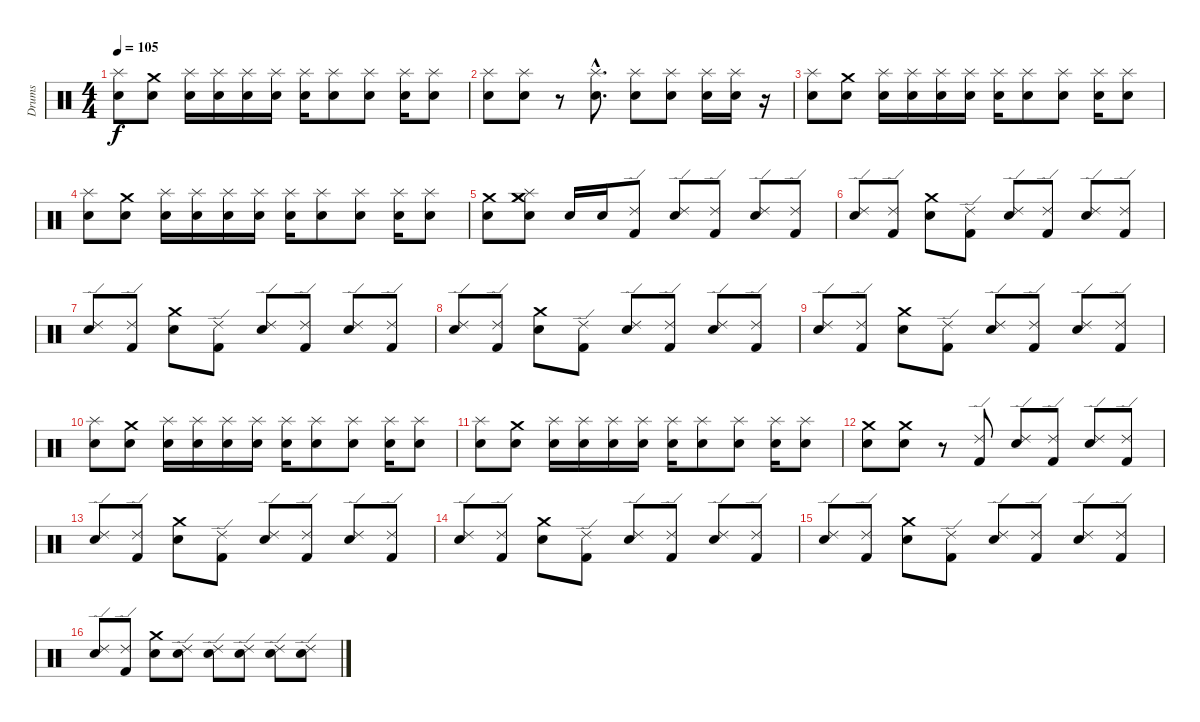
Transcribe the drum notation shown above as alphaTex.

\track ("Drums" "Drums") {instrument percussion}
\staff {score}
\articulation defaults
\ts (4 4)
\tempo 105
\clef neutral
\ks c
("Splash (hit)" "Snare (hit) 2").8{dy f} ("Crash medium (hit)" "Snare (hit) 2").8 ("Splash (hit)" "Snare (hit) 2").16 ("Splash (hit)" "Snare (hit) 2").16 ("Splash (hit)" "Snare (hit) 2").16 ("Splash (hit)" "Snare (hit) 2").16 ("Splash (hit)" "Snare (hit) 2").16 ("Splash (hit)" "Snare (hit) 2").8 ("Splash (hit)" "Snare (hit) 2").8 ("Splash (hit)" "Snare (hit) 2").16 ("Splash (hit)" "Snare (hit) 2").8 |
("Splash (hit)" "Snare (hit) 2").8 ("Splash (hit)" "Snare (hit) 2").8 r.8 ("Splash (hit)"{hac} "Snare (hit) 2"{hac}).8{d} ("Splash (hit)" "Snare (hit) 2").8 ("Splash (hit)" "Snare (hit) 2").8 ("Splash (hit)" "Snare (hit) 2").16 ("Splash (hit)" "Snare (hit) 2").16 r.16 |
("Splash (hit)" "Snare (hit) 2").8 ("Crash medium (hit)" "Snare (hit) 2").8 ("Splash (hit)" "Snare (hit) 2").16 ("Splash (hit)" "Snare (hit) 2").16 ("Splash (hit)" "Snare (hit) 2").16 ("Splash (hit)" "Snare (hit) 2").16 ("Splash (hit)" "Snare (hit) 2").16 ("Splash (hit)" "Snare (hit) 2").8 ("Splash (hit)" "Snare (hit) 2").8 ("Splash (hit)" "Snare (hit) 2").16 ("Splash (hit)" "Snare (hit) 2").8 |
("Splash (hit)" "Snare (hit) 2").8 ("Crash medium (hit)" "Snare (hit) 2").8 ("Splash (hit)" "Snare (hit) 2").16 ("Splash (hit)" "Snare (hit) 2").16 ("Splash (hit)" "Snare (hit) 2").16 ("Splash (hit)" "Snare (hit) 2").16 ("Splash (hit)" "Snare (hit) 2").16 ("Splash (hit)" "Snare (hit) 2").8 ("Splash (hit)" "Snare (hit) 2").8 ("Splash (hit)" "Snare (hit) 2").16 ("Splash (hit)" "Snare (hit) 2").8 |
("Crash medium (hit)" "Snare (hit) 2").8 ("Crash medium (hit)" "Snare (hit) 2" "Crash medium (hit)" "Splash (hit)").8 "Snare (hit) 2".16 "Snare (hit) 2".16 ("Ride (edge) 2" "Kick (hit) 2").8 ("Ride (edge) 2" "Snare (hit) 2").8 ("Ride (edge) 2" "Kick (hit) 2").8 ("Ride (edge) 2" "Snare (hit) 2").8 ("Ride (edge) 2" "Kick (hit) 2").8 |
("Ride (edge) 2" "Snare (hit) 2").8 ("Ride (edge) 2" "Kick (hit) 2").8 ("Crash medium (hit)" "Snare (hit) 2").8 ("Ride (edge) 2" "Kick (hit) 2").8 ("Ride (edge) 2" "Snare (hit) 2").8 ("Ride (edge) 2" "Kick (hit) 2").8 ("Ride (edge) 2" "Snare (hit) 2").8 ("Ride (edge) 2" "Kick (hit) 2").8 |
("Ride (edge) 2" "Snare (hit) 2").8 ("Ride (edge) 2" "Kick (hit) 2").8 ("Crash medium (hit)" "Snare (hit) 2").8 ("Ride (edge) 2" "Kick (hit) 2").8 ("Ride (edge) 2" "Snare (hit) 2").8 ("Ride (edge) 2" "Kick (hit) 2").8 ("Ride (edge) 2" "Snare (hit) 2").8 ("Ride (edge) 2" "Kick (hit) 2").8 |
("Ride (edge) 2" "Snare (hit) 2").8 ("Ride (edge) 2" "Kick (hit) 2").8 ("Crash medium (hit)" "Snare (hit) 2").8 ("Ride (edge) 2" "Kick (hit) 2").8 ("Ride (edge) 2" "Snare (hit) 2").8 ("Ride (edge) 2" "Kick (hit) 2").8 ("Ride (edge) 2" "Snare (hit) 2").8 ("Ride (edge) 2" "Kick (hit) 2").8 |
("Ride (edge) 2" "Snare (hit) 2").8 ("Ride (edge) 2" "Kick (hit) 2").8 ("Crash medium (hit)" "Snare (hit) 2").8 ("Ride (edge) 2" "Kick (hit) 2").8 ("Ride (edge) 2" "Snare (hit) 2").8 ("Ride (edge) 2" "Kick (hit) 2").8 ("Ride (edge) 2" "Snare (hit) 2").8 ("Ride (edge) 2" "Kick (hit) 2").8 |
("Splash (hit)" "Snare (hit) 2").8 ("Crash medium (hit)" "Snare (hit) 2").8 ("Splash (hit)" "Snare (hit) 2").16 ("Splash (hit)" "Snare (hit) 2").16 ("Splash (hit)" "Snare (hit) 2").16 ("Splash (hit)" "Snare (hit) 2").16 ("Splash (hit)" "Snare (hit) 2").16 ("Splash (hit)" "Snare (hit) 2").8 ("Splash (hit)" "Snare (hit) 2").8 ("Splash (hit)" "Snare (hit) 2").16 ("Splash (hit)" "Snare (hit) 2").8 |
("Splash (hit)" "Snare (hit) 2").8 ("Crash medium (hit)" "Snare (hit) 2").8 ("Splash (hit)" "Snare (hit) 2").16 ("Splash (hit)" "Snare (hit) 2").16 ("Splash (hit)" "Snare (hit) 2").16 ("Splash (hit)" "Snare (hit) 2").16 ("Splash (hit)" "Snare (hit) 2").16 ("Splash (hit)" "Snare (hit) 2").8 ("Splash (hit)" "Snare (hit) 2").8 ("Splash (hit)" "Snare (hit) 2").16 ("Splash (hit)" "Snare (hit) 2").8 |
("Crash medium (hit)" "Snare (hit) 2").8 ("Crash medium (hit)" "Snare (hit) 2").8 r.8 ("Ride (edge) 2" "Kick (hit) 2").8 ("Ride (edge) 2" "Snare (hit) 2").8 ("Ride (edge) 2" "Kick (hit) 2").8 ("Ride (edge) 2" "Snare (hit) 2").8 ("Ride (edge) 2" "Kick (hit) 2").8 |
("Ride (edge) 2" "Snare (hit) 2").8 ("Ride (edge) 2" "Kick (hit) 2").8 ("Crash medium (hit)" "Snare (hit) 2").8 ("Ride (edge) 2" "Kick (hit) 2").8 ("Ride (edge) 2" "Snare (hit) 2").8 ("Ride (edge) 2" "Kick (hit) 2").8 ("Ride (edge) 2" "Snare (hit) 2").8 ("Ride (edge) 2" "Kick (hit) 2").8 |
("Ride (edge) 2" "Snare (hit) 2").8 ("Ride (edge) 2" "Kick (hit) 2").8 ("Crash medium (hit)" "Snare (hit) 2").8 ("Ride (edge) 2" "Kick (hit) 2").8 ("Ride (edge) 2" "Snare (hit) 2").8 ("Ride (edge) 2" "Kick (hit) 2").8 ("Ride (edge) 2" "Snare (hit) 2").8 ("Ride (edge) 2" "Kick (hit) 2").8 |
("Ride (edge) 2" "Snare (hit) 2").8 ("Ride (edge) 2" "Kick (hit) 2").8 ("Crash medium (hit)" "Snare (hit) 2").8 ("Ride (edge) 2" "Kick (hit) 2").8 ("Ride (edge) 2" "Snare (hit) 2").8 ("Ride (edge) 2" "Kick (hit) 2").8 ("Ride (edge) 2" "Snare (hit) 2").8 ("Ride (edge) 2" "Kick (hit) 2").8 |
("Ride (edge) 2" "Snare (hit) 2").8 ("Ride (edge) 2" "Kick (hit) 2").8 ("Crash medium (hit)" "Snare (hit) 2").8 ("Ride (edge) 2" "Snare (hit) 2").8 ("Ride (edge) 2" "Snare (hit) 2").8 ("Ride (edge) 2" "Snare (hit) 2").8 ("Ride (edge) 2" "Snare (hit) 2").8 ("Ride (edge) 2" "Snare (hit) 2").8
